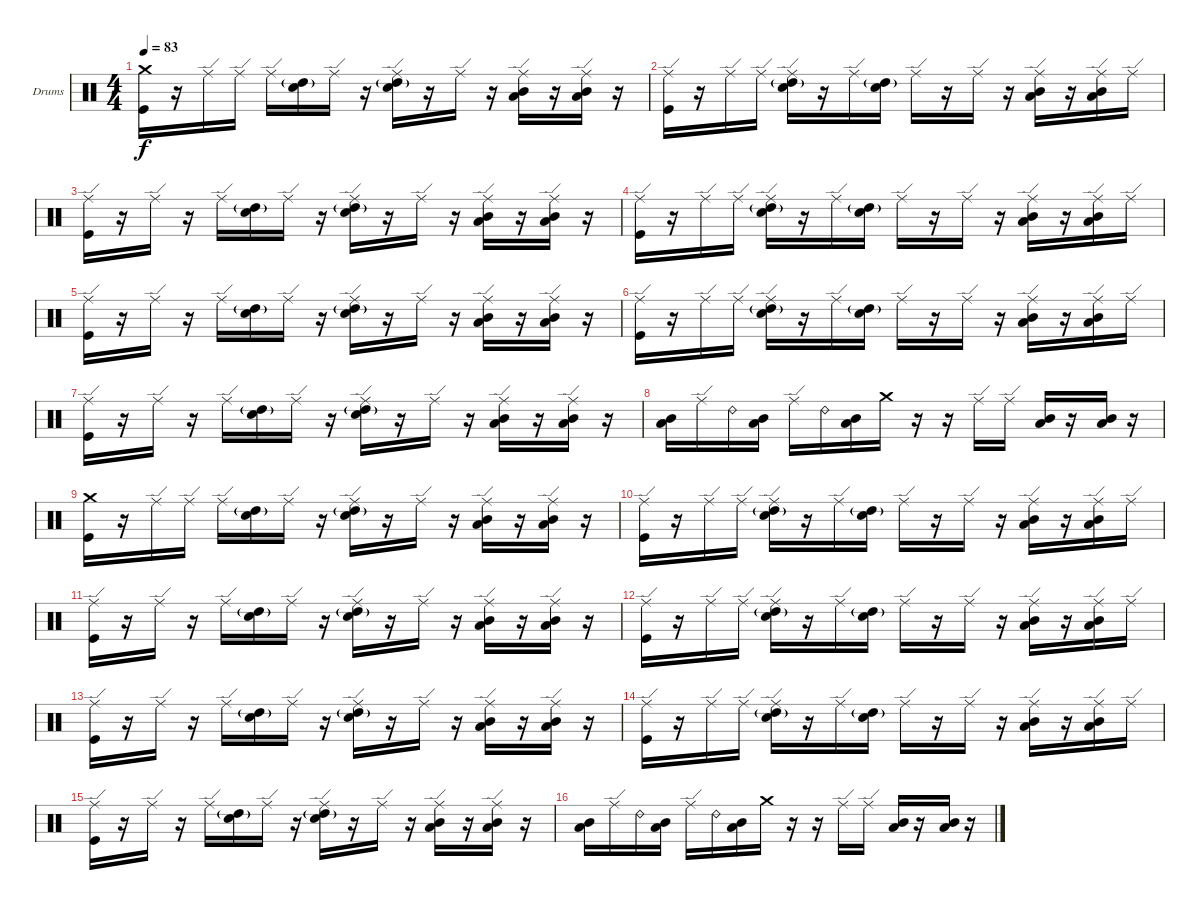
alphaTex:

\bracketExtendMode groupsimilarinstruments
\firstSystemTrackNameOrientation horizontal
\otherSystemsTrackNameOrientation horizontal
\track ("Drumkit" "Drums") {instrument percussion}
\staff {score}
\articulation defaults
\ts (4 4)
\tempo 83
\clef neutral
\ks c
("Crash medium (hit)" "Kick (hit)").16{dy f} r.16 "Ride (edge)".16 "Ride (edge)".16 "Ride (edge)".16 ("High Tom (hit)"{g} "Snare (hit) 2").16 "Ride (edge)".16 r.16 ("Ride (edge)" "High Tom (hit)"{g} "Snare (hit) 2").16 r.16 "Ride (edge)".16 r.16 ("Ride (edge)" "Low Tom (hit)" "Mid Tom (hit)").16 r.16 ("Ride (edge)" "Low Tom (hit)" "Mid Tom (hit)").16 r.16 |
("Ride (edge)" "Kick (hit)").16 r.16 "Ride (edge)".16 "Ride (edge)".16 ("Ride (edge)" "High Tom (hit)"{g} "Snare (hit) 2").16 r.16 "Ride (edge)".16 ("High Tom (hit)"{g} "Snare (hit) 2").16 "Ride (edge)".16 r.16 "Ride (edge)".16 r.16 ("Ride (edge)" "Low Tom (hit)" "Mid Tom (hit)").16 r.16 ("Ride (edge)" "Low Tom (hit)" "Mid Tom (hit)").16 "Ride (edge)".16 |
("Ride (edge)" "Kick (hit)").16 r.16 "Ride (edge)".16 r.16 "Ride (edge)".16 ("High Tom (hit)"{g} "Snare (hit) 2").16 "Ride (edge)".16 r.16 ("Ride (edge)" "High Tom (hit)"{g} "Snare (hit) 2").16 r.16 "Ride (edge)".16 r.16 ("Ride (edge)" "Low Tom (hit)" "Mid Tom (hit)").16 r.16 ("Ride (edge)" "Low Tom (hit)" "Mid Tom (hit)").16 r.16 |
("Ride (edge)" "Kick (hit)").16 r.16 "Ride (edge)".16 "Ride (edge)".16 ("Ride (edge)" "High Tom (hit)"{g} "Snare (hit) 2").16 r.16 "Ride (edge)".16 ("High Tom (hit)"{g} "Snare (hit) 2").16 "Ride (edge)".16 r.16 "Ride (edge)".16 r.16 ("Ride (edge)" "Low Tom (hit)" "Mid Tom (hit)").16 r.16 ("Ride (edge)" "Low Tom (hit)" "Mid Tom (hit)").16 "Ride (edge)".16 |
("Ride (edge)" "Kick (hit)").16 r.16 "Ride (edge)".16 r.16 "Ride (edge)".16 ("High Tom (hit)"{g} "Snare (hit) 2").16 "Ride (edge)".16 r.16 ("Ride (edge)" "High Tom (hit)"{g} "Snare (hit) 2").16 r.16 "Ride (edge)".16 r.16 ("Ride (edge)" "Low Tom (hit)" "Mid Tom (hit)").16 r.16 ("Ride (edge)" "Low Tom (hit)" "Mid Tom (hit)").16 r.16 |
("Ride (edge)" "Kick (hit)").16 r.16 "Ride (edge)".16 "Ride (edge)".16 ("Ride (edge)" "High Tom (hit)"{g} "Snare (hit) 2").16 r.16 "Ride (edge)".16 ("High Tom (hit)"{g} "Snare (hit) 2").16 "Ride (edge)".16 r.16 "Ride (edge)".16 r.16 ("Ride (edge)" "Low Tom (hit)" "Mid Tom (hit)").16 r.16 ("Ride (edge)" "Low Tom (hit)" "Mid Tom (hit)").16 "Ride (edge)".16 |
("Ride (edge)" "Kick (hit)").16 r.16 "Ride (edge)".16 r.16 "Ride (edge)".16 ("High Tom (hit)"{g} "Snare (hit) 2").16 "Ride (edge)".16 r.16 ("Ride (edge)" "High Tom (hit)"{g} "Snare (hit) 2").16 r.16 "Ride (edge)".16 r.16 ("Ride (edge)" "Low Tom (hit)" "Mid Tom (hit)").16 r.16 ("Ride (edge)" "Low Tom (hit)" "Mid Tom (hit)").16 r.16 |
("Low Tom (hit)" "Mid Tom (hit)").16 "Ride (edge)".16 "Ride (bell) 2".16 ("Low Tom (hit)" "Mid Tom (hit)").16 "Ride (edge)".16 "Ride (bell) 2".16 ("Low Tom (hit)" "Mid Tom (hit)").16 "Crash medium (hit)".16 r.16 r.16 "Ride (edge)".16 "Ride (edge)".16 ("Low Tom (hit)" "Mid Tom (hit)").16 r.16 ("Low Tom (hit)" "Mid Tom (hit)").16 r.16 |
("Crash medium (hit)" "Kick (hit)").16 r.16 "Ride (edge)".16 "Ride (edge)".16 "Ride (edge)".16 ("High Tom (hit)"{g} "Snare (hit) 2").16 "Ride (edge)".16 r.16 ("Ride (edge)" "High Tom (hit)"{g} "Snare (hit) 2").16 r.16 "Ride (edge)".16 r.16 ("Ride (edge)" "Low Tom (hit)" "Mid Tom (hit)").16 r.16 ("Ride (edge)" "Low Tom (hit)" "Mid Tom (hit)").16 r.16 |
("Ride (edge)" "Kick (hit)").16 r.16 "Ride (edge)".16 "Ride (edge)".16 ("Ride (edge)" "High Tom (hit)"{g} "Snare (hit) 2").16 r.16 "Ride (edge)".16 ("High Tom (hit)"{g} "Snare (hit) 2").16 "Ride (edge)".16 r.16 "Ride (edge)".16 r.16 ("Ride (edge)" "Low Tom (hit)" "Mid Tom (hit)").16 r.16 ("Ride (edge)" "Low Tom (hit)" "Mid Tom (hit)").16 "Ride (edge)".16 |
("Ride (edge)" "Kick (hit)").16 r.16 "Ride (edge)".16 r.16 "Ride (edge)".16 ("High Tom (hit)"{g} "Snare (hit) 2").16 "Ride (edge)".16 r.16 ("Ride (edge)" "High Tom (hit)"{g} "Snare (hit) 2").16 r.16 "Ride (edge)".16 r.16 ("Ride (edge)" "Low Tom (hit)" "Mid Tom (hit)").16 r.16 ("Ride (edge)" "Low Tom (hit)" "Mid Tom (hit)").16 r.16 |
("Ride (edge)" "Kick (hit)").16 r.16 "Ride (edge)".16 "Ride (edge)".16 ("Ride (edge)" "High Tom (hit)"{g} "Snare (hit) 2").16 r.16 "Ride (edge)".16 ("High Tom (hit)"{g} "Snare (hit) 2").16 "Ride (edge)".16 r.16 "Ride (edge)".16 r.16 ("Ride (edge)" "Low Tom (hit)" "Mid Tom (hit)").16 r.16 ("Ride (edge)" "Low Tom (hit)" "Mid Tom (hit)").16 "Ride (edge)".16 |
("Ride (edge)" "Kick (hit)").16 r.16 "Ride (edge)".16 r.16 "Ride (edge)".16 ("High Tom (hit)"{g} "Snare (hit) 2").16 "Ride (edge)".16 r.16 ("Ride (edge)" "High Tom (hit)"{g} "Snare (hit) 2").16 r.16 "Ride (edge)".16 r.16 ("Ride (edge)" "Low Tom (hit)" "Mid Tom (hit)").16 r.16 ("Ride (edge)" "Low Tom (hit)" "Mid Tom (hit)").16 r.16 |
("Ride (edge)" "Kick (hit)").16 r.16 "Ride (edge)".16 "Ride (edge)".16 ("Ride (edge)" "High Tom (hit)"{g} "Snare (hit) 2").16 r.16 "Ride (edge)".16 ("High Tom (hit)"{g} "Snare (hit) 2").16 "Ride (edge)".16 r.16 "Ride (edge)".16 r.16 ("Ride (edge)" "Low Tom (hit)" "Mid Tom (hit)").16 r.16 ("Ride (edge)" "Low Tom (hit)" "Mid Tom (hit)").16 "Ride (edge)".16 |
("Ride (edge)" "Kick (hit)").16 r.16 "Ride (edge)".16 r.16 "Ride (edge)".16 ("High Tom (hit)"{g} "Snare (hit) 2").16 "Ride (edge)".16 r.16 ("Ride (edge)" "High Tom (hit)"{g} "Snare (hit) 2").16 r.16 "Ride (edge)".16 r.16 ("Ride (edge)" "Low Tom (hit)" "Mid Tom (hit)").16 r.16 ("Ride (edge)" "Low Tom (hit)" "Mid Tom (hit)").16 r.16 |
("Low Tom (hit)" "Mid Tom (hit)").16 "Ride (edge)".16 "Ride (bell) 2".16 ("Low Tom (hit)" "Mid Tom (hit)").16 "Ride (edge)".16 "Ride (bell) 2".16 ("Low Tom (hit)" "Mid Tom (hit)").16 "Crash medium (hit)".16 r.16 r.16 "Ride (edge)".16 "Ride (edge)".16 ("Low Tom (hit)" "Mid Tom (hit)").16 r.16 ("Low Tom (hit)" "Mid Tom (hit)").16 r.16
